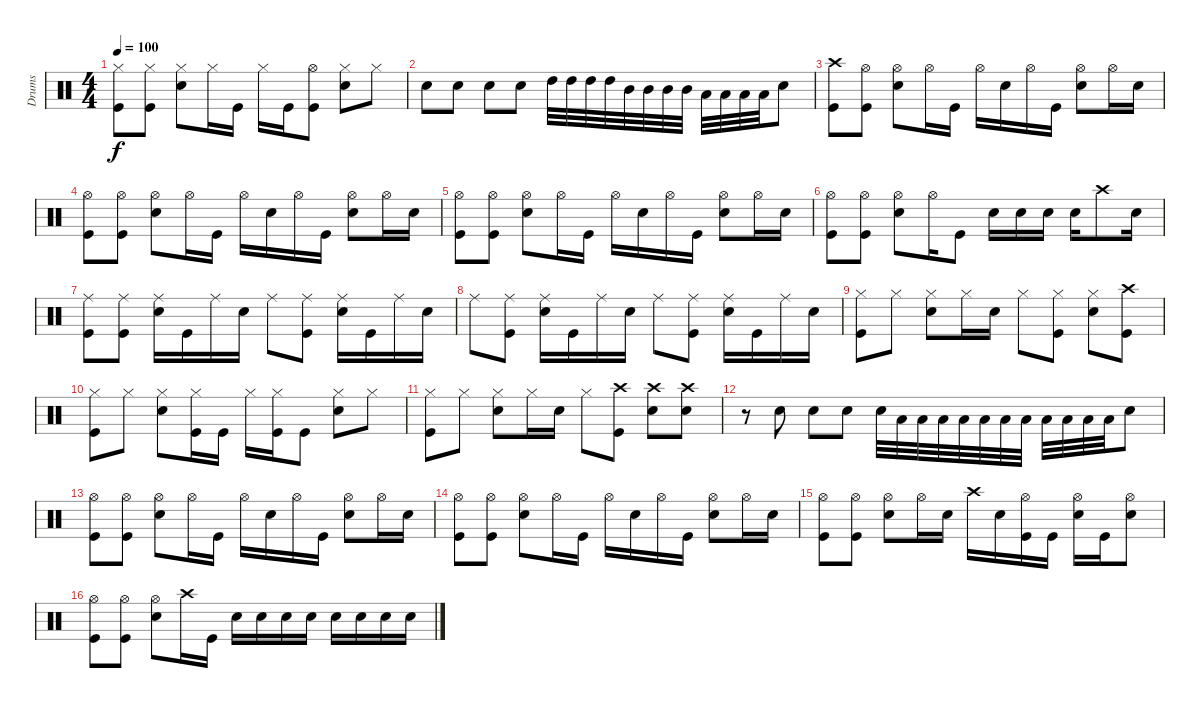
\track ("Drums" "Drums") {instrument percussion}
\staff {score}
\articulation defaults
\ts (4 4)
\tempo 100
\clef neutral
\ks c
("Hi-Hat (closed)" "Kick (hit)").8{dy f} ("Hi-Hat (closed)" "Kick (hit)").8 ("Hi-Hat (closed)" "Snare (hit) 2").8 "Hi-Hat (closed)".16 "Kick (hit)".16 "Hi-Hat (closed)".16 "Kick (hit)".16 ("Hi-Hat (open)" "Kick (hit)").8 ("Hi-Hat (closed)" "Snare (hit) 2").8 "Hi-Hat (closed)".8 |
"Snare (hit) 2".8 "Snare (hit) 2".8 "Snare (hit) 2".8 "Snare (hit) 2".8 "High Tom (hit)".32 "High Tom (hit)".32 "High Tom (hit)".32 "High Tom (hit)".32 "Mid Tom (hit)".32 "Mid Tom (hit)".32 "Mid Tom (hit)".32 "Mid Tom (hit)".32 "Low Floor Tom (hit)".32 "Low Floor Tom (hit)".32 "Low Floor Tom (hit)".32 "Low Floor Tom (hit)".32 "Snare (hit) 2".8 |
("Crash high (hit)" "Kick (hit)").8 ("Hi-Hat (open)" "Kick (hit)").8 ("Hi-Hat (open)" "Snare (hit) 2").8 "Hi-Hat (open)".16 "Kick (hit)".16 "Hi-Hat (open)".16 "Snare (hit) 2".16 "Hi-Hat (open)".16 "Kick (hit)".16 ("Hi-Hat (open)" "Snare (hit) 2").8 "Hi-Hat (open)".16 "Snare (hit) 2".16 |
("Hi-Hat (open)" "Kick (hit)").8 ("Hi-Hat (open)" "Kick (hit)").8 ("Hi-Hat (open)" "Snare (hit) 2").8 "Hi-Hat (open)".16 "Kick (hit)".16 "Hi-Hat (open)".16 "Snare (hit) 2".16 "Hi-Hat (open)".16 "Kick (hit)".16 ("Hi-Hat (open)" "Snare (hit) 2").8 "Hi-Hat (open)".16 "Snare (hit) 2".16 |
("Hi-Hat (open)" "Kick (hit)").8 ("Hi-Hat (open)" "Kick (hit)").8 ("Hi-Hat (open)" "Snare (hit) 2").8 "Hi-Hat (open)".16 "Kick (hit)".16 "Hi-Hat (open)".16 "Snare (hit) 2".16 "Hi-Hat (open)".16 "Kick (hit)".16 ("Hi-Hat (open)" "Snare (hit) 2").8 "Hi-Hat (open)".16 "Snare (hit) 2".16 |
("Hi-Hat (open)" "Kick (hit)").8 ("Hi-Hat (open)" "Kick (hit)").8 ("Hi-Hat (open)" "Snare (hit) 2").8 "Hi-Hat (open)".16 "Kick (hit)".8 "Snare (hit) 2".16 "Snare (hit) 2".16 "Snare (hit) 2".16 "Snare (hit) 2".16 "Crash high (hit)".8 "Snare (hit) 2".16 |
("Ride (middle)" "Kick (hit)").8 ("Ride (middle)" "Kick (hit)").8 ("Ride (middle)" "Snare (hit) 2").16 "Kick (hit)".16 "Ride (middle)".16 "Snare (hit) 2".16 "Ride (middle)".8 ("Ride (middle)" "Kick (hit)").8 ("Ride (middle)" "Snare (hit) 2").16 "Kick (hit)".16 "Ride (middle)".16 "Snare (hit) 2".16 |
"Ride (middle)".8 ("Ride (middle)" "Kick (hit)").8 ("Ride (middle)" "Snare (hit) 2").16 "Kick (hit)".16 "Ride (middle)".16 "Snare (hit) 2".16 "Ride (middle)".8 ("Ride (middle)" "Kick (hit)").8 ("Ride (middle)" "Snare (hit) 2").16 "Kick (hit)".16 "Ride (middle)".16 "Snare (hit) 2".16 |
("Hi-Hat (closed)" "Kick (hit)").8 "Hi-Hat (closed)".8 ("Hi-Hat (closed)" "Snare (hit) 2").8 "Hi-Hat (closed)".16 "Snare (hit) 2".16 "Hi-Hat (closed)".8 ("Hi-Hat (closed)" "Kick (hit)").8 ("Hi-Hat (closed)" "Snare (hit) 2").8 ("Crash high (hit)" "Kick (hit)").8 |
("Hi-Hat (closed)" "Kick (hit)").8 "Hi-Hat (closed)".8 ("Hi-Hat (closed)" "Snare (hit) 2").8 ("Hi-Hat (closed)" "Kick (hit)").16 "Kick (hit)".16 "Hi-Hat (closed)".16 ("Hi-Hat (closed)" "Kick (hit)").16 "Kick (hit)".8 ("Hi-Hat (closed)" "Snare (hit) 2").8 "Hi-Hat (closed)".8 |
("Hi-Hat (closed)" "Kick (hit)").8 "Hi-Hat (closed)".8 ("Hi-Hat (closed)" "Snare (hit) 2").8 "Hi-Hat (closed)".16 "Snare (hit) 2".16 "Hi-Hat (closed)".8 ("Crash high (hit)" "Kick (hit)").8 ("Crash high (hit)" "Snare (hit) 2").8 ("Crash high (hit)" "Snare (hit) 2").8 |
r.8 "Snare (hit) 2".8 "Snare (hit) 2".8 "Snare (hit) 2".8 "Snare (hit) 2".32 "Low Floor Tom (hit)".32 "Low Floor Tom (hit)".32 "Low Floor Tom (hit)".32 "Low Floor Tom (hit)".32 "Low Floor Tom (hit)".32 "Low Floor Tom (hit)".32 "Low Floor Tom (hit)".32 "Low Floor Tom (hit)".32 "Low Floor Tom (hit)".32 "Low Floor Tom (hit)".32 "Low Floor Tom (hit)".32 "Snare (hit) 2".8 |
("Hi-Hat (open)" "Kick (hit)").8 ("Hi-Hat (open)" "Kick (hit)").8 ("Hi-Hat (open)" "Snare (hit) 2").8 "Hi-Hat (open)".16 "Kick (hit)".16 "Hi-Hat (open)".16 "Snare (hit) 2".16 "Hi-Hat (open)".16 "Kick (hit)".16 ("Hi-Hat (open)" "Snare (hit) 2").8 "Hi-Hat (open)".16 "Snare (hit) 2".16 |
("Hi-Hat (open)" "Kick (hit)").8 ("Hi-Hat (open)" "Kick (hit)").8 ("Hi-Hat (open)" "Snare (hit) 2").8 "Hi-Hat (open)".16 "Kick (hit)".16 "Hi-Hat (open)".16 "Snare (hit) 2".16 "Hi-Hat (open)".16 "Kick (hit)".16 ("Hi-Hat (open)" "Snare (hit) 2").8 "Hi-Hat (open)".16 "Snare (hit) 2".16 |
("Hi-Hat (open)" "Kick (hit)").8 ("Hi-Hat (open)" "Kick (hit)").8 ("Hi-Hat (open)" "Snare (hit) 2").8 "Hi-Hat (open)".16 "Snare (hit) 2".16 "Crash high (hit)".16 "Snare (hit) 2".16 ("Hi-Hat (open)" "Kick (hit)").16 "Kick (hit)".16 ("Hi-Hat (open)" "Snare (hit) 2").16 "Kick (hit)".16 ("Hi-Hat (open)" "Snare (hit) 2").8 |
("Hi-Hat (open)" "Kick (hit)").8 ("Hi-Hat (open)" "Kick (hit)").8 ("Hi-Hat (open)" "Snare (hit) 2").8 "Crash high (hit)".16 "Kick (hit)".16 "Snare (hit) 2".16 "Snare (hit) 2".16 "Snare (hit) 2".16 "Snare (hit) 2".16 "Snare (hit) 2".16 "Snare (hit) 2".16 "Snare (hit) 2".16 "Snare (hit) 2".16
